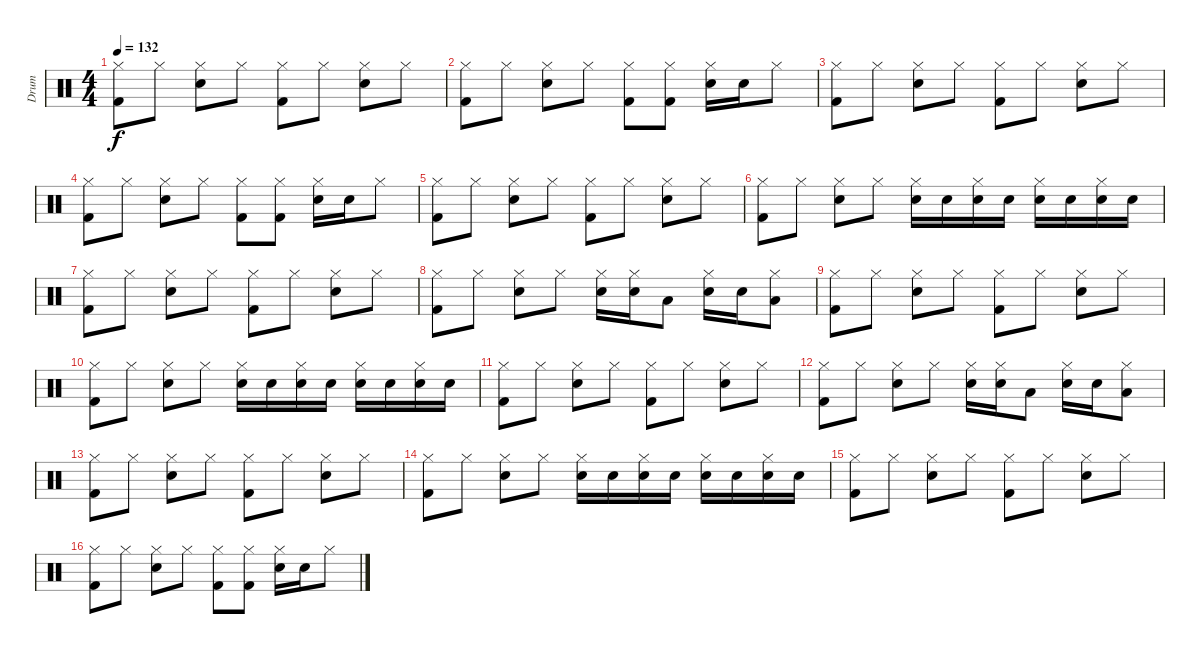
\track ("Drum" "Drum") {instrument percussion}
\staff {score}
\articulation defaults
\ts (4 4)
\tempo 132
\clef neutral
\ks c
("Hi-Hat (closed)" "Kick (hit) 2").8{dy f} "Hi-Hat (closed)".8 ("Hi-Hat (closed)" "Electric Snare (hit)").8 "Hi-Hat (closed)".8 ("Hi-Hat (closed)" "Kick (hit) 2").8 "Hi-Hat (closed)".8 ("Hi-Hat (closed)" "Electric Snare (hit)").8 "Hi-Hat (closed)".8 |
("Hi-Hat (closed)" "Kick (hit) 2").8 "Hi-Hat (closed)".8 ("Hi-Hat (closed)" "Electric Snare (hit)").8 "Hi-Hat (closed)".8 ("Hi-Hat (closed)" "Kick (hit) 2").8 ("Hi-Hat (closed)" "Kick (hit) 2").8 ("Hi-Hat (closed)" "Electric Snare (hit)").16 "Electric Snare (hit)".16 "Hi-Hat (closed)".8 |
("Hi-Hat (closed)" "Kick (hit) 2").8 "Hi-Hat (closed)".8 ("Hi-Hat (closed)" "Electric Snare (hit)").8 "Hi-Hat (closed)".8 ("Hi-Hat (closed)" "Kick (hit) 2").8 "Hi-Hat (closed)".8 ("Hi-Hat (closed)" "Electric Snare (hit)").8 "Hi-Hat (closed)".8 |
("Hi-Hat (closed)" "Kick (hit) 2").8 "Hi-Hat (closed)".8 ("Hi-Hat (closed)" "Electric Snare (hit)").8 "Hi-Hat (closed)".8 ("Hi-Hat (closed)" "Kick (hit) 2").8 ("Hi-Hat (closed)" "Kick (hit) 2").8 ("Hi-Hat (closed)" "Electric Snare (hit)").16 "Electric Snare (hit)".16 "Hi-Hat (closed)".8 |
("Hi-Hat (closed)" "Kick (hit) 2").8 "Hi-Hat (closed)".8 ("Hi-Hat (closed)" "Electric Snare (hit)").8 "Hi-Hat (closed)".8 ("Hi-Hat (closed)" "Kick (hit) 2").8 "Hi-Hat (closed)".8 ("Hi-Hat (closed)" "Electric Snare (hit)").8 "Hi-Hat (closed)".8 |
("Hi-Hat (closed)" "Kick (hit) 2").8 "Hi-Hat (closed)".8 ("Hi-Hat (closed)" "Electric Snare (hit)").8 "Hi-Hat (closed)".8 ("Hi-Hat (closed)" "Electric Snare (hit)").16 "Electric Snare (hit)".16 ("Hi-Hat (closed)" "Electric Snare (hit)").16 "Electric Snare (hit)".16 ("Hi-Hat (closed)" "Electric Snare (hit)").16 "Electric Snare (hit)".16 ("Hi-Hat (closed)" "Electric Snare (hit)").16 "Electric Snare (hit)".16 |
("Hi-Hat (closed)" "Kick (hit) 2").8 "Hi-Hat (closed)".8 ("Hi-Hat (closed)" "Electric Snare (hit)").8 "Hi-Hat (closed)".8 ("Hi-Hat (closed)" "Kick (hit) 2").8 "Hi-Hat (closed)".8 ("Hi-Hat (closed)" "Electric Snare (hit)").8 "Hi-Hat (closed)".8 |
("Hi-Hat (closed)" "Kick (hit) 2").8 "Hi-Hat (closed)".8 ("Hi-Hat (closed)" "Electric Snare (hit)").8 "Hi-Hat (closed)".8 ("Hi-Hat (closed)" "Electric Snare (hit)").16 ("Hi-Hat (closed)" "Electric Snare (hit)").16 "Low Floor Tom (hit)".8 ("Hi-Hat (closed)" "Electric Snare (hit)").16 "Electric Snare (hit)".16 ("Hi-Hat (closed)" "Low Tom (hit)").8 |
("Hi-Hat (closed)" "Kick (hit) 2").8 "Hi-Hat (closed)".8 ("Hi-Hat (closed)" "Electric Snare (hit)").8 "Hi-Hat (closed)".8 ("Hi-Hat (closed)" "Kick (hit) 2").8 "Hi-Hat (closed)".8 ("Hi-Hat (closed)" "Electric Snare (hit)").8 "Hi-Hat (closed)".8 |
("Hi-Hat (closed)" "Kick (hit) 2").8 "Hi-Hat (closed)".8 ("Hi-Hat (closed)" "Electric Snare (hit)").8 "Hi-Hat (closed)".8 ("Hi-Hat (closed)" "Electric Snare (hit)").16 "Electric Snare (hit)".16 ("Hi-Hat (closed)" "Electric Snare (hit)").16 "Electric Snare (hit)".16 ("Hi-Hat (closed)" "Electric Snare (hit)").16 "Electric Snare (hit)".16 ("Hi-Hat (closed)" "Electric Snare (hit)").16 "Electric Snare (hit)".16 |
("Hi-Hat (closed)" "Kick (hit) 2").8 "Hi-Hat (closed)".8 ("Hi-Hat (closed)" "Electric Snare (hit)").8 "Hi-Hat (closed)".8 ("Hi-Hat (closed)" "Kick (hit) 2").8 "Hi-Hat (closed)".8 ("Hi-Hat (closed)" "Electric Snare (hit)").8 "Hi-Hat (closed)".8 |
("Hi-Hat (closed)" "Kick (hit) 2").8 "Hi-Hat (closed)".8 ("Hi-Hat (closed)" "Electric Snare (hit)").8 "Hi-Hat (closed)".8 ("Hi-Hat (closed)" "Electric Snare (hit)").16 ("Hi-Hat (closed)" "Electric Snare (hit)").16 "Low Floor Tom (hit)".8 ("Hi-Hat (closed)" "Electric Snare (hit)").16 "Electric Snare (hit)".16 ("Hi-Hat (closed)" "Low Tom (hit)").8 |
("Hi-Hat (closed)" "Kick (hit) 2").8 "Hi-Hat (closed)".8 ("Hi-Hat (closed)" "Electric Snare (hit)").8 "Hi-Hat (closed)".8 ("Hi-Hat (closed)" "Kick (hit) 2").8 "Hi-Hat (closed)".8 ("Hi-Hat (closed)" "Electric Snare (hit)").8 "Hi-Hat (closed)".8 |
("Hi-Hat (closed)" "Kick (hit) 2").8 "Hi-Hat (closed)".8 ("Hi-Hat (closed)" "Electric Snare (hit)").8 "Hi-Hat (closed)".8 ("Hi-Hat (closed)" "Electric Snare (hit)").16 "Electric Snare (hit)".16 ("Hi-Hat (closed)" "Electric Snare (hit)").16 "Electric Snare (hit)".16 ("Hi-Hat (closed)" "Electric Snare (hit)").16 "Electric Snare (hit)".16 ("Hi-Hat (closed)" "Electric Snare (hit)").16 "Electric Snare (hit)".16 |
("Hi-Hat (closed)" "Kick (hit) 2").8 "Hi-Hat (closed)".8 ("Hi-Hat (closed)" "Electric Snare (hit)").8 "Hi-Hat (closed)".8 ("Hi-Hat (closed)" "Kick (hit) 2").8 "Hi-Hat (closed)".8 ("Hi-Hat (closed)" "Electric Snare (hit)").8 "Hi-Hat (closed)".8 |
("Hi-Hat (closed)" "Kick (hit) 2").8 "Hi-Hat (closed)".8 ("Hi-Hat (closed)" "Electric Snare (hit)").8 "Hi-Hat (closed)".8 ("Hi-Hat (closed)" "Kick (hit) 2").8 ("Hi-Hat (closed)" "Kick (hit) 2").8 ("Hi-Hat (closed)" "Electric Snare (hit)").16 "Electric Snare (hit)".16 "Hi-Hat (closed)".8
